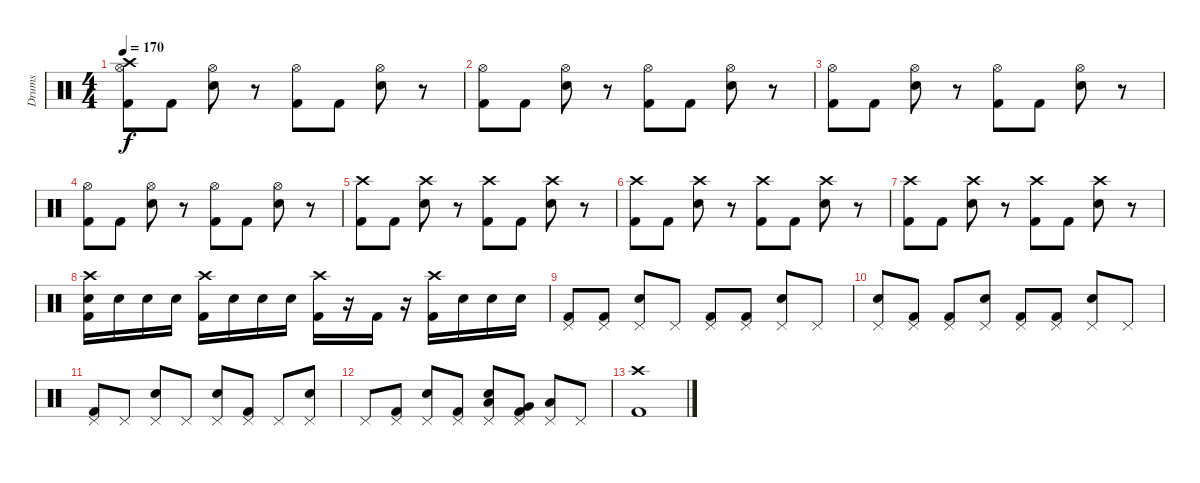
\track ("Drums" "Drums") {instrument percussion}
\staff {score}
\articulation defaults
\ts (4 4)
\tempo 170
\clef neutral
\ks c
("Crash high (hit)" "Hi-Hat (open)" "Kick (hit) 2").8{dy f} "Kick (hit) 2".8 ("Hi-Hat (open)" "Electric Snare (hit)").8 r.8 ("Hi-Hat (open)" "Kick (hit) 2").8 "Kick (hit) 2".8 ("Hi-Hat (open)" "Electric Snare (hit)").8 r.8 |
("Hi-Hat (open)" "Kick (hit) 2").8 "Kick (hit) 2".8 ("Hi-Hat (open)" "Electric Snare (hit)").8 r.8 ("Hi-Hat (open)" "Kick (hit) 2").8 "Kick (hit) 2".8 ("Hi-Hat (open)" "Electric Snare (hit)").8 r.8 |
("Hi-Hat (open)" "Kick (hit) 2").8 "Kick (hit) 2".8 ("Hi-Hat (open)" "Electric Snare (hit)").8 r.8 ("Hi-Hat (open)" "Kick (hit) 2").8 "Kick (hit) 2".8 ("Hi-Hat (open)" "Electric Snare (hit)").8 r.8 |
("Hi-Hat (open)" "Kick (hit) 2").8 "Kick (hit) 2".8 ("Hi-Hat (open)" "Electric Snare (hit)").8 r.8 ("Hi-Hat (open)" "Kick (hit) 2").8 "Kick (hit) 2".8 ("Hi-Hat (open)" "Electric Snare (hit)").8 r.8 |
("Crash high (hit)" "Kick (hit) 2").8 "Kick (hit) 2".8 ("Crash high (hit)" "Electric Snare (hit)").8 r.8 ("Crash high (hit)" "Kick (hit) 2").8 "Kick (hit) 2".8 ("Crash high (hit)" "Electric Snare (hit)").8 r.8 |
("Crash high (hit)" "Kick (hit) 2").8 "Kick (hit) 2".8 ("Crash high (hit)" "Electric Snare (hit)").8 r.8 ("Crash high (hit)" "Kick (hit) 2").8 "Kick (hit) 2".8 ("Crash high (hit)" "Electric Snare (hit)").8 r.8 |
("Crash high (hit)" "Kick (hit) 2").8 "Kick (hit) 2".8 ("Crash high (hit)" "Electric Snare (hit)").8 r.8 ("Crash high (hit)" "Kick (hit) 2").8 "Kick (hit) 2".8 ("Crash high (hit)" "Electric Snare (hit)").8 r.8 |
("Crash high (hit)" "Electric Snare (hit)" "Kick (hit) 2").16 "Electric Snare (hit)".16 "Electric Snare (hit)".16 "Electric Snare (hit)".16 ("Crash high (hit)" "Kick (hit) 2").16 "Electric Snare (hit)".16 "Electric Snare (hit)".16 "Electric Snare (hit)".16 ("Crash high (hit)" "Kick (hit) 2").16 r.16 "Kick (hit) 2".16 r.16 ("Crash high (hit)" "Kick (hit) 2").16 "Electric Snare (hit)".16 "Electric Snare (hit)".16 "Electric Snare (hit)".16 |
("Pedal Hi-Hat (hit)" "Kick (hit) 2").8 ("Pedal Hi-Hat (hit)" "Kick (hit) 2").8 ("Pedal Hi-Hat (hit)" "Electric Snare (hit)").8 "Pedal Hi-Hat (hit)".8 ("Pedal Hi-Hat (hit)" "Kick (hit) 2").8 ("Pedal Hi-Hat (hit)" "Kick (hit) 2").8 ("Pedal Hi-Hat (hit)" "Electric Snare (hit)").8 "Pedal Hi-Hat (hit)".8 |
("Pedal Hi-Hat (hit)" "Electric Snare (hit)").8 ("Pedal Hi-Hat (hit)" "Kick (hit) 2").8 ("Pedal Hi-Hat (hit)" "Kick (hit) 2").8 ("Pedal Hi-Hat (hit)" "Electric Snare (hit)").8 ("Pedal Hi-Hat (hit)" "Kick (hit) 2").8 ("Pedal Hi-Hat (hit)" "Kick (hit) 2").8 ("Pedal Hi-Hat (hit)" "Electric Snare (hit)").8 "Pedal Hi-Hat (hit)".8 |
("Pedal Hi-Hat (hit)" "Kick (hit) 2").8 "Pedal Hi-Hat (hit)".8 ("Pedal Hi-Hat (hit)" "Electric Snare (hit)").8 "Pedal Hi-Hat (hit)".8 ("Pedal Hi-Hat (hit)" "Electric Snare (hit)").8 ("Pedal Hi-Hat (hit)" "Kick (hit) 2").8 "Pedal Hi-Hat (hit)".8 ("Pedal Hi-Hat (hit)" "Electric Snare (hit)").8 |
"Pedal Hi-Hat (hit)".8 ("Pedal Hi-Hat (hit)" "Kick (hit) 2").8 ("Pedal Hi-Hat (hit)" "Electric Snare (hit)").8 ("Pedal Hi-Hat (hit)" "Kick (hit) 2").8 ("Low Tom (hit)" "Pedal Hi-Hat (hit)" "Electric Snare (hit)").8 ("Very Low Tom (hit)" "Pedal Hi-Hat (hit)" "Kick (hit) 2").8 ("Low Floor Tom (hit)" "Pedal Hi-Hat (hit)").8 "Pedal Hi-Hat (hit)".8 |
("Crash high (hit)" "Kick (hit) 2").1
